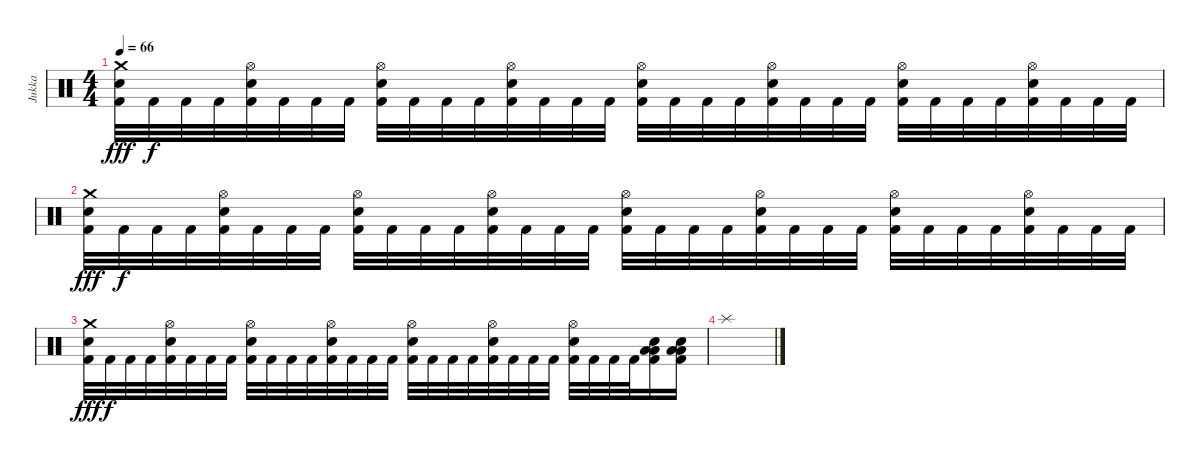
\track ("Jukka" "Jukka") {instrument percussion}
\staff {score}
\articulation defaults
\ts (4 4)
\tempo 66
\clef neutral
\ks c
("Kick (hit) 2" "Electric Snare (hit)" "Crash medium (hit)").32{dy fff} "Kick (hit) 2".32{dy f} "Kick (hit) 2".32 "Kick (hit) 2".32 ("Kick (hit) 2" "Electric Snare (hit)" "Hi-Hat (open)").32 "Kick (hit) 2".32 "Kick (hit) 2".32 "Kick (hit) 2".32 ("Kick (hit) 2" "Electric Snare (hit)" "Hi-Hat (open)").32 "Kick (hit) 2".32 "Kick (hit) 2".32 "Kick (hit) 2".32 ("Kick (hit) 2" "Electric Snare (hit)" "Hi-Hat (open)").32 "Kick (hit) 2".32 "Kick (hit) 2".32 "Kick (hit) 2".32 ("Kick (hit) 2" "Electric Snare (hit)" "Hi-Hat (open)").32 "Kick (hit) 2".32 "Kick (hit) 2".32 "Kick (hit) 2".32 ("Kick (hit) 2" "Electric Snare (hit)" "Hi-Hat (open)").32 "Kick (hit) 2".32 "Kick (hit) 2".32 "Kick (hit) 2".32 ("Kick (hit) 2" "Electric Snare (hit)" "Hi-Hat (open)").32 "Kick (hit) 2".32 "Kick (hit) 2".32 "Kick (hit) 2".32 ("Kick (hit) 2" "Electric Snare (hit)" "Hi-Hat (open)").32 "Kick (hit) 2".32 "Kick (hit) 2".32 "Kick (hit) 2".32 |
("Kick (hit) 2" "Electric Snare (hit)" "Crash medium (hit)").32{dy fff} "Kick (hit) 2".32{dy f} "Kick (hit) 2".32 "Kick (hit) 2".32 ("Kick (hit) 2" "Electric Snare (hit)" "Hi-Hat (open)").32 "Kick (hit) 2".32 "Kick (hit) 2".32 "Kick (hit) 2".32 ("Kick (hit) 2" "Electric Snare (hit)" "Hi-Hat (open)").32 "Kick (hit) 2".32 "Kick (hit) 2".32 "Kick (hit) 2".32 ("Kick (hit) 2" "Electric Snare (hit)" "Hi-Hat (open)").32 "Kick (hit) 2".32 "Kick (hit) 2".32 "Kick (hit) 2".32 ("Kick (hit) 2" "Electric Snare (hit)" "Hi-Hat (open)").32 "Kick (hit) 2".32 "Kick (hit) 2".32 "Kick (hit) 2".32 ("Kick (hit) 2" "Electric Snare (hit)" "Hi-Hat (open)").32 "Kick (hit) 2".32 "Kick (hit) 2".32 "Kick (hit) 2".32 ("Kick (hit) 2" "Electric Snare (hit)" "Hi-Hat (open)").32 "Kick (hit) 2".32 "Kick (hit) 2".32 "Kick (hit) 2".32 ("Kick (hit) 2" "Electric Snare (hit)" "Hi-Hat (open)").32 "Kick (hit) 2".32 "Kick (hit) 2".32 "Kick (hit) 2".32 |
("Kick (hit) 2" "Electric Snare (hit)" "Crash medium (hit)").32{dy fff} "Kick (hit) 2".32{dy f} "Kick (hit) 2".32 "Kick (hit) 2".32 ("Kick (hit) 2" "Electric Snare (hit)" "Hi-Hat (open)").32 "Kick (hit) 2".32 "Kick (hit) 2".32 "Kick (hit) 2".32 ("Kick (hit) 2" "Electric Snare (hit)" "Hi-Hat (open)").32 "Kick (hit) 2".32 "Kick (hit) 2".32 "Kick (hit) 2".32 ("Kick (hit) 2" "Electric Snare (hit)" "Hi-Hat (open)").32 "Kick (hit) 2".32 "Kick (hit) 2".32 "Kick (hit) 2".32 ("Kick (hit) 2" "Electric Snare (hit)" "Hi-Hat (open)").32 "Kick (hit) 2".32 "Kick (hit) 2".32 "Kick (hit) 2".32 ("Kick (hit) 2" "Electric Snare (hit)" "Hi-Hat (open)").32 "Kick (hit) 2".32 "Kick (hit) 2".32 "Kick (hit) 2".32 ("Kick (hit) 2" "Electric Snare (hit)" "Hi-Hat (open)").32 "Kick (hit) 2".32 "Kick (hit) 2".32 "Kick (hit) 2".32 ("Kick (hit) 2" "Electric Snare (hit)" "Low Floor Tom (hit)" "Low Floor Tom (hit)").16 ("Kick (hit) 2" "Electric Snare (hit)" "Low Floor Tom (hit)" "Low Floor Tom (hit)").16 |
"Splash (hit)".1
